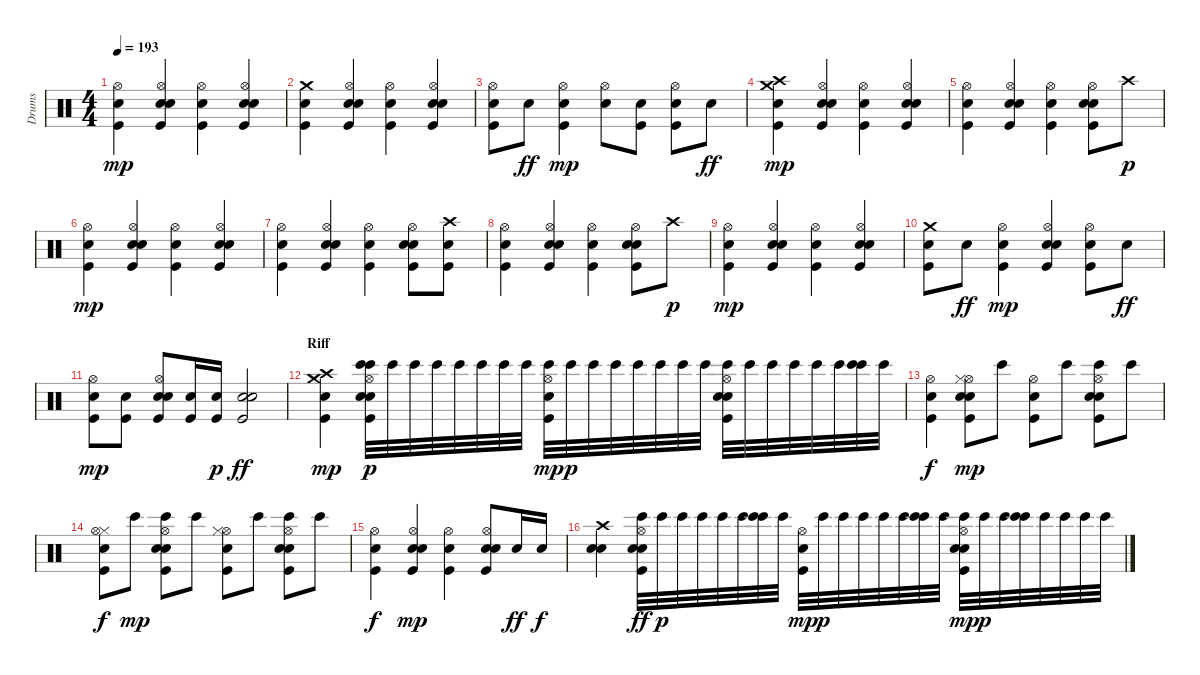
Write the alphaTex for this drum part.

\track ("Drums" "Drums") {instrument percussion}
\staff {score}
\articulation defaults
\ts (4 4)
\tempo 193
\clef neutral
\ks c
("Kick (hit)" "Snare (hit) 2" "Hi-Hat (open)").4{dy mp} ("Kick (hit)" "Snare (hit) 2" "Electric Snare (hit)" "Hi-Hat (open)").4 ("Kick (hit)" "Snare (hit) 2" "Hi-Hat (open)").4 ("Kick (hit)" "Snare (hit) 2" "Electric Snare (hit)" "Hi-Hat (open)").4 |
("Crash medium (hit)" "Kick (hit)" "Snare (hit) 2").4 ("Kick (hit)" "Snare (hit) 2" "Electric Snare (hit)" "Hi-Hat (open)").4 ("Kick (hit)" "Snare (hit) 2" "Hi-Hat (open)").4 ("Kick (hit)" "Snare (hit) 2" "Electric Snare (hit)" "Hi-Hat (open)").4 |
("Kick (hit)" "Snare (hit) 2" "Hi-Hat (open)").8 "Electric Snare (hit)".8{dy ff} ("Kick (hit)" "Snare (hit) 2" "Hi-Hat (open)").4{dy mp} ("Electric Snare (hit)" "Hi-Hat (open)").8 ("Kick (hit)" "Snare (hit) 2").8 ("Kick (hit)" "Snare (hit) 2" "Hi-Hat (open)").8 "Electric Snare (hit)".8{dy ff} |
("Crash medium (hit)" "Crash high (hit)" "Kick (hit)" "Snare (hit) 2").4{dy mp} ("Kick (hit)" "Snare (hit) 2" "Electric Snare (hit)" "Hi-Hat (open)").4 ("Kick (hit)" "Snare (hit) 2" "Hi-Hat (open)").4 ("Kick (hit)" "Snare (hit) 2" "Electric Snare (hit)" "Hi-Hat (open)").4 |
("Kick (hit)" "Snare (hit) 2" "Hi-Hat (open)").4 ("Kick (hit)" "Snare (hit) 2" "Electric Snare (hit)" "Hi-Hat (open)").4 ("Kick (hit)" "Snare (hit) 2" "Hi-Hat (open)").4 ("Kick (hit)" "Snare (hit) 2" "Electric Snare (hit)" "Hi-Hat (open)").8 "Crash high (hit)".8{dy p} |
("Kick (hit)" "Snare (hit) 2" "Hi-Hat (open)").4{dy mp} ("Kick (hit)" "Snare (hit) 2" "Electric Snare (hit)" "Hi-Hat (open)").4 ("Kick (hit)" "Snare (hit) 2" "Hi-Hat (open)").4 ("Kick (hit)" "Snare (hit) 2" "Electric Snare (hit)" "Hi-Hat (open)").4 |
("Kick (hit)" "Snare (hit) 2" "Hi-Hat (open)").4 ("Kick (hit)" "Snare (hit) 2" "Electric Snare (hit)" "Hi-Hat (open)").4 ("Kick (hit)" "Snare (hit) 2" "Hi-Hat (open)").4 ("Kick (hit)" "Snare (hit) 2" "Electric Snare (hit)" "Hi-Hat (open)").8 ("Crash high (hit)" "Kick (hit)" "Snare (hit) 2").8 |
("Kick (hit)" "Snare (hit) 2" "Hi-Hat (open)").4 ("Kick (hit)" "Snare (hit) 2" "Electric Snare (hit)" "Hi-Hat (open)").4 ("Kick (hit)" "Snare (hit) 2" "Hi-Hat (open)").4 ("Kick (hit)" "Snare (hit) 2" "Electric Snare (hit)" "Hi-Hat (open)").8 "Crash high (hit)".8{dy p} |
("Kick (hit)" "Snare (hit) 2" "Hi-Hat (open)").4{dy mp} ("Kick (hit)" "Snare (hit) 2" "Electric Snare (hit)" "Hi-Hat (open)").4 ("Kick (hit)" "Snare (hit) 2" "Hi-Hat (open)").4 ("Kick (hit)" "Snare (hit) 2" "Electric Snare (hit)" "Hi-Hat (open)").4 |
("Crash medium (hit)" "Kick (hit)" "Snare (hit) 2").8 "Electric Snare (hit)".8{dy ff} ("Kick (hit)" "Snare (hit) 2" "Hi-Hat (open)").4{dy mp} ("Kick (hit)" "Snare (hit) 2" "Electric Snare (hit)" "Hi-Hat (open)").4 ("Kick (hit)" "Snare (hit) 2" "Hi-Hat (open)").8 "Electric Snare (hit)".8{dy ff} |
("Kick (hit)" "Snare (hit) 2" "Hi-Hat (open)").8{dy mp} ("Kick (hit)" "Snare (hit) 2").8 ("Kick (hit)" "Snare (hit) 2" "Electric Snare (hit)" "Hi-Hat (open)").8 ("Kick (hit)" "Snare (hit) 2").16 ("Kick (hit)" "Snare (hit) 2").16{dy p} ("Kick (hit)" "Snare (hit) 2" "Electric Snare (hit)").2{dy ff} |
\section ("" "Riff")
("Crash high (hit)" "Crash medium (hit)" "Kick (hit)" "Snare (hit) 2").4{dy mp} ("Kick (hit)" "Hi-Hat (open)" "Snare (hit) 2" "Bongo High (hit)" "Electric Snare (hit)" "Bongo High (hit)").32{dy p} "Bongo High (hit)".32 "Bongo High (hit)".32 "Bongo High (hit)".32 "Bongo High (hit)".32 "Bongo High (hit)".32 "Bongo High (hit)".32 "Bongo High (hit)".32 ("Bongo High (hit)" "Kick (hit)" "Snare (hit) 2" "Hi-Hat (open)").32{dy mp} "Bongo High (hit)".32{dy p} "Bongo High (hit)".32 "Bongo High (hit)".32 "Bongo High (hit)".32 "Bongo High (hit)".32 "Bongo High (hit)".32 "Bongo High (hit)".32 ("Kick (hit)" "Snare (hit) 2" "Electric Snare (hit)" "Hi-Hat (open)" "Bongo High (hit)").32 "Bongo High (hit)".32 "Bongo High (hit)".32 "Bongo High (hit)".32 "Bongo High (hit)".32 "Bongo High (hit)".32 ("Bongo High (hit)" "Bongo High (hit)").32 "Bongo High (hit)".32 |
("Hi-Hat (open)" "Snare (hit) 2" "Kick (hit)").4{dy f} ("Kick (hit)" "Snare (hit) 2" "Electric Snare (hit)" "Hi-Hat (open)" "Hi-Hat (closed)").8{dy mp} "Bongo High (hit)".8 ("Kick (hit)" "Snare (hit) 2" "Hi-Hat (open)").8 "Bongo High (hit)".8 ("Kick (hit)" "Snare (hit) 2" "Electric Snare (hit)" "Hi-Hat (open)" "Bongo High (hit)").8 "Bongo High (hit)".8 |
("Hi-Hat (closed)" "Kick (hit)" "Snare (hit) 2" "Hi-Hat (open)").8{dy f} "Bongo High (hit)".8{dy mp} ("Kick (hit)" "Snare (hit) 2" "Electric Snare (hit)" "Hi-Hat (open)" "Bongo High (hit)").8 "Bongo High (hit)".8 ("Kick (hit)" "Snare (hit) 2" "Hi-Hat (open)" "Hi-Hat (closed)").8 "Bongo High (hit)".8 ("Kick (hit)" "Snare (hit) 2" "Electric Snare (hit)" "Hi-Hat (open)" "Bongo High (hit)").8 "Bongo High (hit)".8 |
("Kick (hit)" "Snare (hit) 2" "Hi-Hat (open)").4{dy f} ("Kick (hit)" "Snare (hit) 2" "Electric Snare (hit)" "Hi-Hat (open)").4{dy mp} ("Kick (hit)" "Snare (hit) 2" "Hi-Hat (open)").4 ("Kick (hit)" "Snare (hit) 2" "Electric Snare (hit)" "Hi-Hat (open)").8 "Electric Snare (hit)".16{dy ff} "Electric Snare (hit)".16{dy f} |
("Crash high (hit)" "Snare (hit) 2" "Snare (hit) 2").4 ("Kick (hit)" "Hi-Hat (open)" "Snare (hit) 2" "Bongo High (hit)" "Electric Snare (hit)").32{dy ff} "Bongo High (hit)".32{dy p} "Bongo High (hit)".32 "Bongo High (hit)".32 "Bongo High (hit)".32 "Bongo High (hit)".32 ("Bongo High (hit)" "Bongo High (hit)").32 "Bongo High (hit)".32 ("Kick (hit)" "Snare (hit) 2" "Hi-Hat (open)").32{dy mp} "Bongo High (hit)".32{dy p} "Bongo High (hit)".32 "Bongo High (hit)".32 "Bongo High (hit)".32 "Bongo High (hit)".32 ("Bongo High (hit)" "Bongo High (hit)").32 "Bongo High (hit)".32 ("Bongo High (hit)" "Kick (hit)" "Snare (hit) 2" "Electric Snare (hit)" "Hi-Hat (open)").32{dy mp} "Bongo High (hit)".32{dy p} "Bongo High (hit)".32 ("Bongo High (hit)" "Bongo High (hit)").32 "Bongo High (hit)".32 "Bongo High (hit)".32 "Bongo High (hit)".32 "Bongo High (hit)".32
